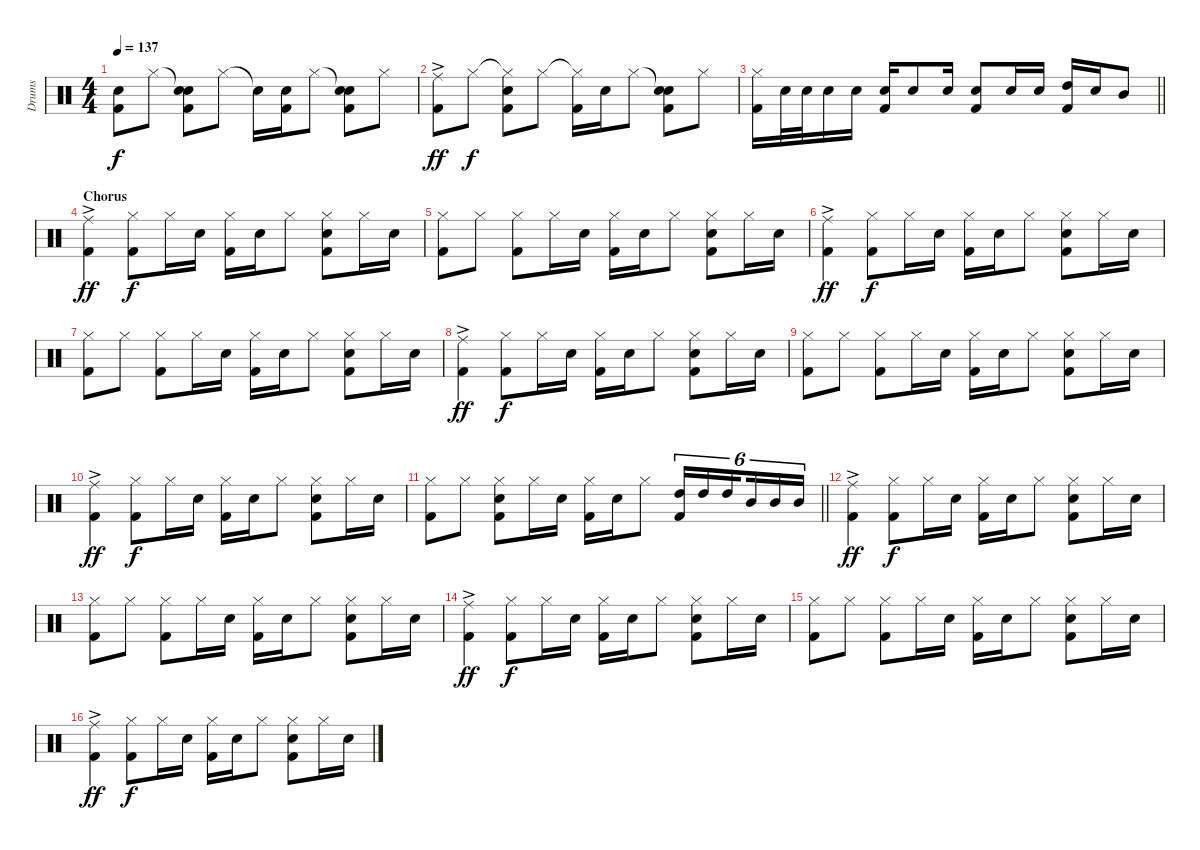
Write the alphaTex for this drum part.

\track ("Drums" "Drums") {instrument percussion}
\staff {score}
\articulation defaults
\ts (4 4)
\tempo 137
\clef neutral
\ks c
("Snare (hit)"{t} "Kick (hit) 2").8{dy f} "Hi-Hat (closed)".8 ("Snare (hit)"{t} "Electric Snare (hit)" "Kick (hit) 2").8 "Hi-Hat (closed)".8 "Snare (hit)"{t}.16 ("Electric Snare (hit)" "Kick (hit) 2").16 "Hi-Hat (closed)".8 ("Snare (hit)"{t} "Electric Snare (hit)" "Kick (hit) 2").8 "Hi-Hat (closed)".8 |
("Ride (middle)"{ac} "Kick (hit) 2").8{dy ff} "Hi-Hat (closed)".8{dy f} ("Hi-Hat (closed)"{t} "Electric Snare (hit)" "Kick (hit) 2").8 "Hi-Hat (closed)".8 ("Hi-Hat (closed)"{t} "Kick (hit) 2").16 "Electric Snare (hit)".16 "Hi-Hat (closed)".8 ("Snare (hit)"{t} "Electric Snare (hit)" "Kick (hit) 2").8 "Hi-Hat (closed)".8 |
\barLineRight lightlight
("Hi-Hat (closed)" "Kick (hit) 2").16 "Electric Snare (hit)".32 "Electric Snare (hit)".32 "Electric Snare (hit)".16 "Electric Snare (hit)".16 ("Electric Snare (hit)" "Kick (hit) 2").16 "Electric Snare (hit)".8 "Electric Snare (hit)".16 ("Electric Snare (hit)" "Kick (hit) 2").8 "Electric Snare (hit)".16 "Electric Snare (hit)".16 ("High Tom (hit)" "Kick (hit) 2").16 "Electric Snare (hit)".16 "Mid Tom (hit)".8 |
\section ("" "Chorus")
("Ride (middle)"{ac} "Kick (hit) 2").4{dy ff} ("Hi-Hat (closed)" "Kick (hit) 2").8{dy f} "Hi-Hat (closed)".16 "Electric Snare (hit)".16 ("Hi-Hat (closed)" "Kick (hit) 2").16 "Electric Snare (hit)".16 "Hi-Hat (closed)".8 ("Hi-Hat (closed)" "Electric Snare (hit)" "Kick (hit) 2").8 "Hi-Hat (closed)".16 "Electric Snare (hit)".16 |
("Hi-Hat (closed)" "Kick (hit) 2").8 "Hi-Hat (closed)".8 ("Hi-Hat (closed)" "Kick (hit) 2").8 "Hi-Hat (closed)".16 "Electric Snare (hit)".16 ("Hi-Hat (closed)" "Kick (hit) 2").16 "Electric Snare (hit)".16 "Hi-Hat (closed)".8 ("Hi-Hat (closed)" "Electric Snare (hit)" "Kick (hit) 2").8 "Hi-Hat (closed)".16 "Electric Snare (hit)".16 |
("Ride (middle)"{ac} "Kick (hit) 2").4{dy ff} ("Hi-Hat (closed)" "Kick (hit) 2").8{dy f} "Hi-Hat (closed)".16 "Electric Snare (hit)".16 ("Hi-Hat (closed)" "Kick (hit) 2").16 "Electric Snare (hit)".16 "Hi-Hat (closed)".8 ("Hi-Hat (closed)" "Electric Snare (hit)" "Kick (hit) 2").8 "Hi-Hat (closed)".16 "Electric Snare (hit)".16 |
("Hi-Hat (closed)" "Kick (hit) 2").8 "Hi-Hat (closed)".8 ("Hi-Hat (closed)" "Kick (hit) 2").8 "Hi-Hat (closed)".16 "Electric Snare (hit)".16 ("Hi-Hat (closed)" "Kick (hit) 2").16 "Electric Snare (hit)".16 "Hi-Hat (closed)".8 ("Hi-Hat (closed)" "Electric Snare (hit)" "Kick (hit) 2").8 "Hi-Hat (closed)".16 "Electric Snare (hit)".16 |
("Ride (middle)"{ac} "Kick (hit) 2").4{dy ff} ("Hi-Hat (closed)" "Kick (hit) 2").8{dy f} "Hi-Hat (closed)".16 "Electric Snare (hit)".16 ("Hi-Hat (closed)" "Kick (hit) 2").16 "Electric Snare (hit)".16 "Hi-Hat (closed)".8 ("Hi-Hat (closed)" "Electric Snare (hit)" "Kick (hit) 2").8 "Hi-Hat (closed)".16 "Electric Snare (hit)".16 |
("Hi-Hat (closed)" "Kick (hit) 2").8 "Hi-Hat (closed)".8 ("Hi-Hat (closed)" "Kick (hit) 2").8 "Hi-Hat (closed)".16 "Electric Snare (hit)".16 ("Hi-Hat (closed)" "Kick (hit) 2").16 "Electric Snare (hit)".16 "Hi-Hat (closed)".8 ("Hi-Hat (closed)" "Electric Snare (hit)" "Kick (hit) 2").8 "Hi-Hat (closed)".16 "Electric Snare (hit)".16 |
("Ride (middle)"{ac} "Kick (hit) 2").4{dy ff} ("Hi-Hat (closed)" "Kick (hit) 2").8{dy f} "Hi-Hat (closed)".16 "Electric Snare (hit)".16 ("Hi-Hat (closed)" "Kick (hit) 2").16 "Electric Snare (hit)".16 "Hi-Hat (closed)".8 ("Hi-Hat (closed)" "Electric Snare (hit)" "Kick (hit) 2").8 "Hi-Hat (closed)".16 "Electric Snare (hit)".16 |
\barLineRight lightlight
("Hi-Hat (closed)" "Kick (hit) 2").8 "Hi-Hat (closed)".8 ("Hi-Hat (closed)" "Electric Snare (hit)" "Kick (hit) 2").8 "Hi-Hat (closed)".16 "Electric Snare (hit)".16 ("Hi-Hat (closed)" "Kick (hit) 2").16 "Electric Snare (hit)".16 "Hi-Hat (closed)".8 ("High Tom (hit)" "Kick (hit) 2").16{tu (6 4)} "High Tom (hit)".16{tu (6 4)} "High Tom (hit)".16{tu (6 4) beam splitsecondary} "Mid Tom (hit)".16{tu (6 4)} "Mid Tom (hit)".16{tu (6 4)} "Mid Tom (hit)".16{tu (6 4)} |
\section ("" "")
("Ride (middle)"{ac} "Kick (hit) 2").4{dy ff} ("Hi-Hat (closed)" "Kick (hit) 2").8{dy f} "Hi-Hat (closed)".16 "Electric Snare (hit)".16 ("Hi-Hat (closed)" "Kick (hit) 2").16 "Electric Snare (hit)".16 "Hi-Hat (closed)".8 ("Hi-Hat (closed)" "Electric Snare (hit)" "Kick (hit) 2").8 "Hi-Hat (closed)".16 "Electric Snare (hit)".16 |
("Hi-Hat (closed)" "Kick (hit) 2").8 "Hi-Hat (closed)".8 ("Hi-Hat (closed)" "Kick (hit) 2").8 "Hi-Hat (closed)".16 "Electric Snare (hit)".16 ("Hi-Hat (closed)" "Kick (hit) 2").16 "Electric Snare (hit)".16 "Hi-Hat (closed)".8 ("Hi-Hat (closed)" "Electric Snare (hit)" "Kick (hit) 2").8 "Hi-Hat (closed)".16 "Electric Snare (hit)".16 |
("Ride (middle)"{ac} "Kick (hit) 2").4{dy ff} ("Hi-Hat (closed)" "Kick (hit) 2").8{dy f} "Hi-Hat (closed)".16 "Electric Snare (hit)".16 ("Hi-Hat (closed)" "Kick (hit) 2").16 "Electric Snare (hit)".16 "Hi-Hat (closed)".8 ("Hi-Hat (closed)" "Electric Snare (hit)" "Kick (hit) 2").8 "Hi-Hat (closed)".16 "Electric Snare (hit)".16 |
("Hi-Hat (closed)" "Kick (hit) 2").8 "Hi-Hat (closed)".8 ("Hi-Hat (closed)" "Kick (hit) 2").8 "Hi-Hat (closed)".16 "Electric Snare (hit)".16 ("Hi-Hat (closed)" "Kick (hit) 2").16 "Electric Snare (hit)".16 "Hi-Hat (closed)".8 ("Hi-Hat (closed)" "Electric Snare (hit)" "Kick (hit) 2").8 "Hi-Hat (closed)".16 "Electric Snare (hit)".16 |
("Ride (middle)"{ac} "Kick (hit) 2").4{dy ff} ("Hi-Hat (closed)" "Kick (hit) 2").8{dy f} "Hi-Hat (closed)".16 "Electric Snare (hit)".16 ("Hi-Hat (closed)" "Kick (hit) 2").16 "Electric Snare (hit)".16 "Hi-Hat (closed)".8 ("Hi-Hat (closed)" "Electric Snare (hit)" "Kick (hit) 2").8 "Hi-Hat (closed)".16 "Electric Snare (hit)".16
